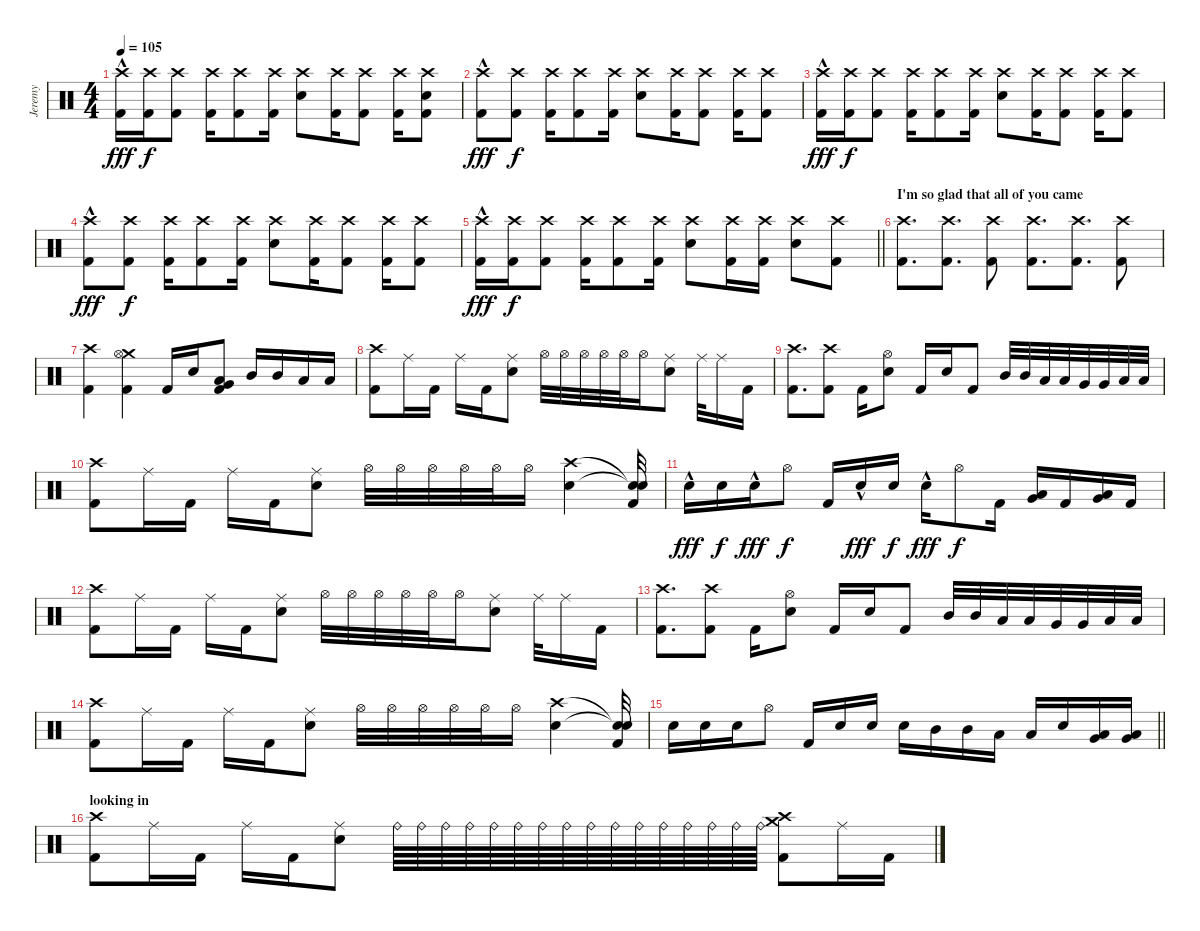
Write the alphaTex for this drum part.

\track ("Jeremy" "Jeremy") {instrument percussion}
\staff {score}
\articulation defaults
\ts (4 4)
\tempo 105
\clef neutral
\ks c
("Crash high (hit)" "Kick (hit) 2"{hac}).16{dy fff} ("Crash high (hit)" "Kick (hit) 2").16{dy f} ("Crash high (hit)" "Kick (hit) 2").8 ("Crash high (hit)" "Kick (hit) 2").16 ("Crash high (hit)" "Kick (hit) 2").8 ("Crash high (hit)" "Kick (hit) 2").16 ("Crash high (hit)" "Snare (hit) 2").8 ("Crash high (hit)" "Kick (hit) 2").16 ("Crash high (hit)" "Kick (hit) 2").8 ("Crash high (hit)" "Kick (hit) 2").16 ("Crash high (hit)" "Snare (hit) 2" "Kick (hit) 2").8 |
("Crash high (hit)" "Kick (hit) 2"{hac}).8{dy fff} ("Crash high (hit)" "Kick (hit) 2").8{dy f} ("Crash high (hit)" "Kick (hit) 2").16 ("Crash high (hit)" "Kick (hit) 2").8 ("Crash high (hit)" "Kick (hit) 2").16 ("Crash high (hit)" "Snare (hit) 2").8 ("Crash high (hit)" "Kick (hit) 2").16 ("Crash high (hit)" "Kick (hit) 2").8 ("Crash high (hit)" "Kick (hit) 2").16 ("Crash high (hit)" "Kick (hit) 2").8 |
("Crash high (hit)" "Kick (hit) 2"{hac}).16{dy fff} ("Crash high (hit)" "Kick (hit) 2").16{dy f} ("Crash high (hit)" "Kick (hit) 2").8 ("Crash high (hit)" "Kick (hit) 2").16 ("Crash high (hit)" "Kick (hit) 2").8 ("Crash high (hit)" "Kick (hit) 2").16 ("Crash high (hit)" "Snare (hit) 2").8 ("Crash high (hit)" "Kick (hit) 2").16 ("Crash high (hit)" "Kick (hit) 2").8 ("Crash high (hit)" "Kick (hit) 2").16 ("Crash high (hit)" "Kick (hit) 2").8 |
("Crash high (hit)" "Kick (hit) 2"{hac}).8{dy fff} ("Crash high (hit)" "Kick (hit) 2").8{dy f} ("Crash high (hit)" "Kick (hit) 2").16 ("Crash high (hit)" "Kick (hit) 2").8 ("Crash high (hit)" "Kick (hit) 2").16 ("Crash high (hit)" "Snare (hit) 2").8 ("Crash high (hit)" "Kick (hit) 2").16 ("Crash high (hit)" "Kick (hit) 2").8 ("Crash high (hit)" "Kick (hit) 2").16 ("Crash high (hit)" "Kick (hit) 2").8 |
\barLineRight lightlight
("Crash high (hit)" "Kick (hit) 2"{hac}).16{dy fff} ("Crash high (hit)" "Kick (hit) 2").16{dy f} ("Crash high (hit)" "Kick (hit) 2").8 ("Crash high (hit)" "Kick (hit) 2").16 ("Crash high (hit)" "Kick (hit) 2").8 ("Crash high (hit)" "Kick (hit) 2").16 ("Crash high (hit)" "Snare (hit) 2").8 ("Crash high (hit)" "Kick (hit) 2").16 ("Crash high (hit)" "Kick (hit) 2").16 ("Crash high (hit)" "Snare (hit) 2").8 ("Crash high (hit)" "Kick (hit) 2").8 |
\section ("" "I'm so glad that all of you came")
("Crash high (hit)" "Kick (hit) 2").8{d} ("Crash high (hit)" "Kick (hit) 2").8{d} ("Crash high (hit)" "Kick (hit) 2").8 ("Crash high (hit)" "Kick (hit) 2").8{d} ("Crash high (hit)" "Kick (hit) 2").8{d} ("Crash high (hit)" "Kick (hit) 2").8 |
("Crash high (hit)" "Kick (hit) 2").4 ("Crash medium (hit)" "Hi-Hat (open)" "Kick (hit) 2").4 "Kick (hit) 2".16 "Snare (hit) 2".16 ("Very Low Tom (hit)" "Low Floor Tom (hit)" "Kick (hit) 2").8 "Mid Tom (hit)".16 "Mid Tom (hit)".16 "Low Tom (hit)".16 "Low Tom (hit)".16 |
("Crash high (hit)" "Kick (hit) 2").8 "Ride (middle)".16 "Kick (hit) 2".16 "Ride (middle)".16 "Kick (hit) 2".16 ("Ride (middle)" "Snare (hit) 2").8 "Hi-Hat (open)".32 "Hi-Hat (open)".32 "Hi-Hat (open)".32 "Hi-Hat (open)".32 "Hi-Hat (open)".32 "Hi-Hat (open)".16 ("Ride (middle)" "Snare (hit) 2").8 "Ride (middle)".32 "Ride (middle)".16 "Kick (hit) 2".16 |
("Crash high (hit)" "Kick (hit) 2").8{d} ("Crash high (hit)" "Kick (hit) 2").8 "Kick (hit) 2".16 ("Hi-Hat (open)" "Snare (hit) 2").8 "Kick (hit) 2".16 "Snare (hit) 2".16 "Kick (hit) 2".8 "Mid Tom (hit)".32 "Mid Tom (hit)".32 "Low Tom (hit)".32 "Low Tom (hit)".32 "Very Low Tom (hit)".32 "Very Low Tom (hit)".32 "Low Floor Tom (hit)".32 "Low Floor Tom (hit)".32 |
("Crash high (hit)" "Kick (hit) 2").8 "Ride (middle)".16 "Kick (hit) 2".16 "Ride (middle)".16 "Kick (hit) 2".16 ("Ride (middle)" "Snare (hit) 2").8 "Hi-Hat (open)".32 "Hi-Hat (open)".32 "Hi-Hat (open)".32 "Hi-Hat (open)".32 "Hi-Hat (open)".32 "Hi-Hat (open)".16 ("Crash high (hit)" "Snare (hit) 2").4 ("Snare (hit)"{t} "Snare (hit)"{t} "Kick (hit) 2").32 |
"Snare (hit) 2"{hac}.16{dy fff} "Snare (hit) 2".16{dy f} "Snare (hit) 2"{hac}.16{dy fff} "Hi-Hat (open)".8{dy f} "Kick (hit) 2".16 "Snare (hit) 2"{hac}.16{dy fff} "Snare (hit) 2".16{dy f} "Snare (hit) 2"{hac}.16{dy fff} "Hi-Hat (open)".8{dy f} "Kick (hit) 2".16 ("Low Tom (hit)" "Very Low Tom (hit)").16 "Kick (hit) 2".16 ("Low Tom (hit)" "Very Low Tom (hit)").16 "Kick (hit) 2".16 |
("Crash high (hit)" "Kick (hit) 2").8 "Ride (middle)".16 "Kick (hit) 2".16 "Ride (middle)".16 "Kick (hit) 2".16 ("Ride (middle)" "Snare (hit) 2").8 "Hi-Hat (open)".32 "Hi-Hat (open)".32 "Hi-Hat (open)".32 "Hi-Hat (open)".32 "Hi-Hat (open)".32 "Hi-Hat (open)".16 ("Ride (middle)" "Snare (hit) 2").8 "Ride (middle)".32 "Ride (middle)".16 "Kick (hit) 2".16 |
("Crash high (hit)" "Kick (hit) 2").8{d} ("Crash high (hit)" "Kick (hit) 2").8 "Kick (hit) 2".16 ("Hi-Hat (open)" "Snare (hit) 2").8 "Kick (hit) 2".16 "Snare (hit) 2".16 "Kick (hit) 2".8 "Mid Tom (hit)".32 "Mid Tom (hit)".32 "Low Tom (hit)".32 "Low Tom (hit)".32 "Very Low Tom (hit)".32 "Very Low Tom (hit)".32 "Low Floor Tom (hit)".32 "Low Floor Tom (hit)".32 |
("Crash high (hit)" "Kick (hit) 2").8 "Ride (middle)".16 "Kick (hit) 2".16 "Ride (middle)".16 "Kick (hit) 2".16 ("Ride (middle)" "Snare (hit) 2").8 "Hi-Hat (open)".32 "Hi-Hat (open)".32 "Hi-Hat (open)".32 "Hi-Hat (open)".32 "Hi-Hat (open)".32 "Hi-Hat (open)".16 ("Crash high (hit)" "Snare (hit) 2").4 ("Snare (hit)"{t} "Snare (hit)"{t} "Kick (hit) 2").32 |
\barLineRight lightlight "Snare (hit) 2".16 "Snare (hit) 2".16 "Snare (hit) 2".16 "Hi-Hat (open)".8 "Kick (hit) 2".16 "Snare (hit) 2".16 "Snare (hit) 2".16 "Snare (hit) 2".16 "Mid Tom (hit)".16 "Mid Tom (hit)".16 "Low Tom (hit)".16 "Low Tom (hit)".16 "Snare (hit) 2".16
("Very Low Tom (hit)" "Low Floor Tom (hit)").16 ("Very Low Tom (hit)" "Low Floor Tom (hit)").16 |
\section ("" "looking in ")
("Crash high (hit)" "Kick (hit) 2").8 "Ride (middle)".16 "Kick (hit) 2".16 "Ride (middle)".16 "Kick (hit) 2".16 ("Ride (middle)" "Snare (hit) 2").8 "Ride (bell)".64 "Ride (bell)".64 "Ride (bell)".64 "Ride (bell)".64 "Ride (bell)".64 "Ride (bell)".64 "Ride (bell)".64 "Ride (bell)".64 "Ride (bell)".64 "Ride (bell)".64 "Ride (bell)".64 "Ride (bell)".64 "Ride (bell)".64 "Ride (bell)".64 "Ride (bell)".64 "Ride (bell)".64 ("Crash medium (hit)" "Crash high (hit)" "Kick (hit) 2").8 "Ride (middle)".16 "Kick (hit) 2".16
